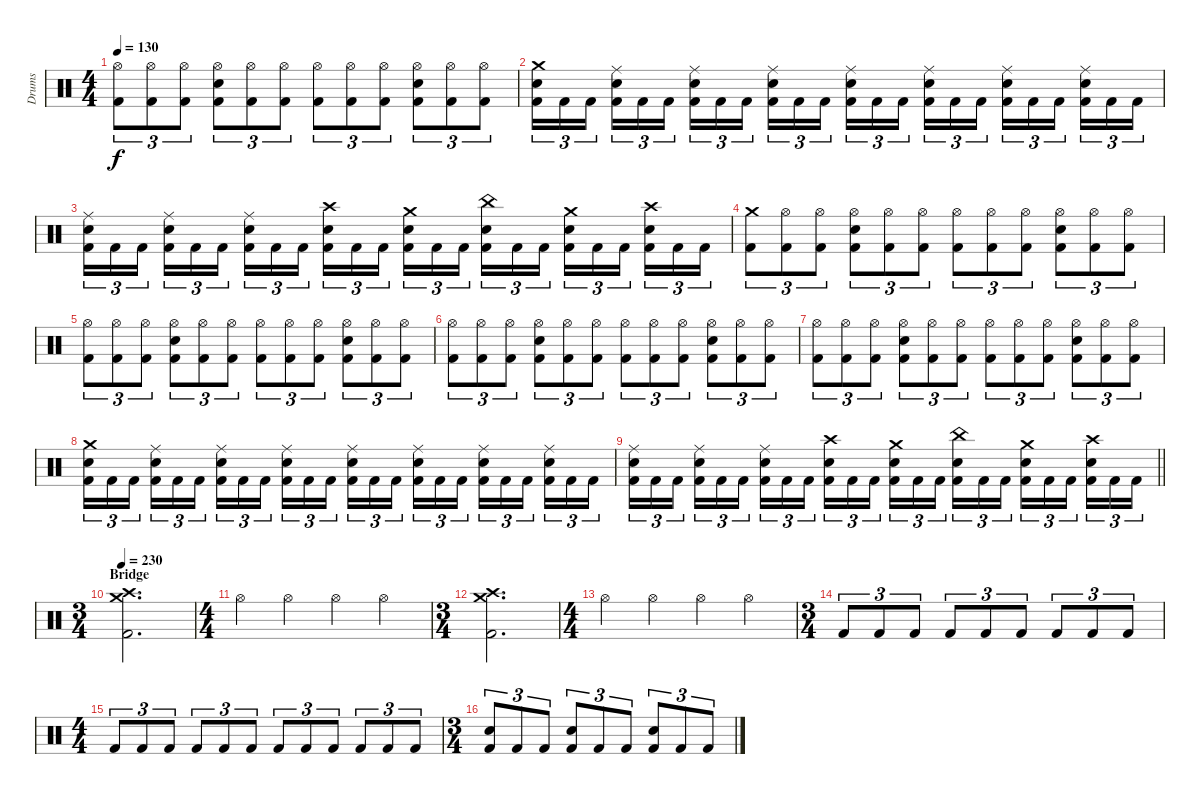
\track ("Drums" "Drums") {instrument percussion}
\staff {score}
\articulation defaults
\ts (4 4)
\tempo 130
\clef neutral
\ks c
("Kick (hit) 2" "Hi-Hat (open)").8{tu (3 2) dy f} ("Kick (hit) 2" "Hi-Hat (open)").8{tu (3 2)} ("Kick (hit) 2" "Hi-Hat (open)").8{tu (3 2)} ("Kick (hit) 2" "Snare (hit) 2" "Hi-Hat (open)").8{tu (3 2)} ("Kick (hit) 2" "Hi-Hat (open)").8{tu (3 2)} ("Kick (hit) 2" "Hi-Hat (open)").8{tu (3 2)} ("Kick (hit) 2" "Hi-Hat (open)").8{tu (3 2)} ("Kick (hit) 2" "Hi-Hat (open)").8{tu (3 2)} ("Kick (hit) 2" "Hi-Hat (open)").8{tu (3 2)} ("Kick (hit) 2" "Snare (hit) 2" "Hi-Hat (open)").8{tu (3 2)} ("Kick (hit) 2" "Hi-Hat (open)").8{tu (3 2)} ("Kick (hit) 2" "Hi-Hat (open)").8{tu (3 2)} |
("Kick (hit) 2" "Snare (hit) 2" "Crash medium (hit)").16{tu (3 2)} "Kick (hit) 2".16{tu (3 2)} "Kick (hit) 2".16{tu (3 2) beam splitsecondary} ("Kick (hit) 2" "Snare (hit) 2" "Ride (middle)").16{tu (3 2)} "Kick (hit) 2".16{tu (3 2)} "Kick (hit) 2".16{tu (3 2)} ("Kick (hit) 2" "Snare (hit) 2" "Ride (middle)").16{tu (3 2)} "Kick (hit) 2".16{tu (3 2)} "Kick (hit) 2".16{tu (3 2) beam splitsecondary} ("Kick (hit) 2" "Snare (hit) 2" "Ride (middle)").16{tu (3 2)} "Kick (hit) 2".16{tu (3 2)} "Kick (hit) 2".16{tu (3 2)} ("Kick (hit) 2" "Snare (hit) 2" "Ride (middle)").16{tu (3 2)} "Kick (hit) 2".16{tu (3 2)} "Kick (hit) 2".16{tu (3 2) beam splitsecondary} ("Kick (hit) 2" "Snare (hit) 2" "Ride (middle)").16{tu (3 2)} "Kick (hit) 2".16{tu (3 2)} "Kick (hit) 2".16{tu (3 2)} ("Kick (hit) 2" "Snare (hit) 2" "Ride (middle)").16{tu (3 2)} "Kick (hit) 2".16{tu (3 2)} "Kick (hit) 2".16{tu (3 2) beam splitsecondary} ("Kick (hit) 2" "Snare (hit) 2" "Ride (middle)").16{tu (3 2)} "Kick (hit) 2".16{tu (3 2)} "Kick (hit) 2".16{tu (3 2)} |
("Kick (hit) 2" "Snare (hit) 2" "Ride (middle)").16{tu (3 2)} "Kick (hit) 2".16{tu (3 2)} "Kick (hit) 2".16{tu (3 2) beam splitsecondary} ("Kick (hit) 2" "Snare (hit) 2" "Ride (middle)").16{tu (3 2)} "Kick (hit) 2".16{tu (3 2)} "Kick (hit) 2".16{tu (3 2)} ("Kick (hit) 2" "Snare (hit) 2" "Ride (middle)").16{tu (3 2)} "Kick (hit) 2".16{tu (3 2)} "Kick (hit) 2".16{tu (3 2) beam splitsecondary} ("Kick (hit) 2" "Snare (hit) 2" "Crash high (hit)").16{tu (3 2)} "Kick (hit) 2".16{tu (3 2)} "Kick (hit) 2".16{tu (3 2)} ("Kick (hit) 2" "Snare (hit) 2" "Crash medium (hit)").16{tu (3 2)} "Kick (hit) 2".16{tu (3 2)} "Kick (hit) 2".16{tu (3 2) beam splitsecondary} ("Kick (hit) 2" "Snare (hit) 2" "China (hit)").16{tu (3 2)} "Kick (hit) 2".16{tu (3 2)} "Kick (hit) 2".16{tu (3 2)} ("Kick (hit) 2" "Snare (hit) 2" "Crash medium (hit)").16{tu (3 2)} "Kick (hit) 2".16{tu (3 2)} "Kick (hit) 2".16{tu (3 2) beam splitsecondary} ("Kick (hit) 2" "Snare (hit) 2" "Crash high (hit)").16{tu (3 2)} "Kick (hit) 2".16{tu (3 2)} "Kick (hit) 2".16{tu (3 2)} |
("Kick (hit) 2" "Crash medium (hit)").8{tu (3 2)} ("Kick (hit) 2" "Hi-Hat (open)").8{tu (3 2)} ("Kick (hit) 2" "Hi-Hat (open)").8{tu (3 2)} ("Kick (hit) 2" "Snare (hit) 2" "Hi-Hat (open)").8{tu (3 2)} ("Kick (hit) 2" "Hi-Hat (open)").8{tu (3 2)} ("Kick (hit) 2" "Hi-Hat (open)").8{tu (3 2)} ("Kick (hit) 2" "Hi-Hat (open)").8{tu (3 2)} ("Kick (hit) 2" "Hi-Hat (open)").8{tu (3 2)} ("Kick (hit) 2" "Hi-Hat (open)").8{tu (3 2)} ("Kick (hit) 2" "Snare (hit) 2" "Hi-Hat (open)").8{tu (3 2)} ("Kick (hit) 2" "Hi-Hat (open)").8{tu (3 2)} ("Kick (hit) 2" "Hi-Hat (open)").8{tu (3 2)} |
("Kick (hit) 2" "Hi-Hat (open)").8{tu (3 2)} ("Kick (hit) 2" "Hi-Hat (open)").8{tu (3 2)} ("Kick (hit) 2" "Hi-Hat (open)").8{tu (3 2)} ("Kick (hit) 2" "Snare (hit) 2" "Hi-Hat (open)").8{tu (3 2)} ("Kick (hit) 2" "Hi-Hat (open)").8{tu (3 2)} ("Kick (hit) 2" "Hi-Hat (open)").8{tu (3 2)} ("Kick (hit) 2" "Hi-Hat (open)").8{tu (3 2)} ("Kick (hit) 2" "Hi-Hat (open)").8{tu (3 2)} ("Kick (hit) 2" "Hi-Hat (open)").8{tu (3 2)} ("Kick (hit) 2" "Snare (hit) 2" "Hi-Hat (open)").8{tu (3 2)} ("Kick (hit) 2" "Hi-Hat (open)").8{tu (3 2)} ("Kick (hit) 2" "Hi-Hat (open)").8{tu (3 2)} |
("Kick (hit) 2" "Hi-Hat (open)").8{tu (3 2)} ("Kick (hit) 2" "Hi-Hat (open)").8{tu (3 2)} ("Kick (hit) 2" "Hi-Hat (open)").8{tu (3 2)} ("Kick (hit) 2" "Snare (hit) 2" "Hi-Hat (open)").8{tu (3 2)} ("Kick (hit) 2" "Hi-Hat (open)").8{tu (3 2)} ("Kick (hit) 2" "Hi-Hat (open)").8{tu (3 2)} ("Kick (hit) 2" "Hi-Hat (open)").8{tu (3 2)} ("Kick (hit) 2" "Hi-Hat (open)").8{tu (3 2)} ("Kick (hit) 2" "Hi-Hat (open)").8{tu (3 2)} ("Kick (hit) 2" "Snare (hit) 2" "Hi-Hat (open)").8{tu (3 2)} ("Kick (hit) 2" "Hi-Hat (open)").8{tu (3 2)} ("Kick (hit) 2" "Hi-Hat (open)").8{tu (3 2)} |
("Kick (hit) 2" "Hi-Hat (open)").8{tu (3 2)} ("Kick (hit) 2" "Hi-Hat (open)").8{tu (3 2)} ("Kick (hit) 2" "Hi-Hat (open)").8{tu (3 2)} ("Kick (hit) 2" "Snare (hit) 2" "Hi-Hat (open)").8{tu (3 2)} ("Kick (hit) 2" "Hi-Hat (open)").8{tu (3 2)} ("Kick (hit) 2" "Hi-Hat (open)").8{tu (3 2)} ("Kick (hit) 2" "Hi-Hat (open)").8{tu (3 2)} ("Kick (hit) 2" "Hi-Hat (open)").8{tu (3 2)} ("Kick (hit) 2" "Hi-Hat (open)").8{tu (3 2)} ("Kick (hit) 2" "Snare (hit) 2" "Hi-Hat (open)").8{tu (3 2)} ("Kick (hit) 2" "Hi-Hat (open)").8{tu (3 2)} ("Kick (hit) 2" "Hi-Hat (open)").8{tu (3 2)} |
("Kick (hit) 2" "Snare (hit) 2" "Crash medium (hit)").16{tu (3 2)} "Kick (hit) 2".16{tu (3 2)} "Kick (hit) 2".16{tu (3 2) beam splitsecondary} ("Kick (hit) 2" "Snare (hit) 2" "Ride (middle)").16{tu (3 2)} "Kick (hit) 2".16{tu (3 2)} "Kick (hit) 2".16{tu (3 2)} ("Kick (hit) 2" "Snare (hit) 2" "Ride (middle)").16{tu (3 2)} "Kick (hit) 2".16{tu (3 2)} "Kick (hit) 2".16{tu (3 2) beam splitsecondary} ("Kick (hit) 2" "Snare (hit) 2" "Ride (middle)").16{tu (3 2)} "Kick (hit) 2".16{tu (3 2)} "Kick (hit) 2".16{tu (3 2)} ("Kick (hit) 2" "Snare (hit) 2" "Ride (middle)").16{tu (3 2)} "Kick (hit) 2".16{tu (3 2)} "Kick (hit) 2".16{tu (3 2) beam splitsecondary} ("Kick (hit) 2" "Snare (hit) 2" "Ride (middle)").16{tu (3 2)} "Kick (hit) 2".16{tu (3 2)} "Kick (hit) 2".16{tu (3 2)} ("Kick (hit) 2" "Snare (hit) 2" "Ride (middle)").16{tu (3 2)} "Kick (hit) 2".16{tu (3 2)} "Kick (hit) 2".16{tu (3 2) beam splitsecondary} ("Kick (hit) 2" "Snare (hit) 2" "Ride (middle)").16{tu (3 2)} "Kick (hit) 2".16{tu (3 2)} "Kick (hit) 2".16{tu (3 2)} |
\barLineRight lightlight
("Kick (hit) 2" "Snare (hit) 2" "Ride (middle)").16{tu (3 2)} "Kick (hit) 2".16{tu (3 2)} "Kick (hit) 2".16{tu (3 2) beam splitsecondary} ("Kick (hit) 2" "Snare (hit) 2" "Ride (middle)").16{tu (3 2)} "Kick (hit) 2".16{tu (3 2)} "Kick (hit) 2".16{tu (3 2)} ("Kick (hit) 2" "Snare (hit) 2" "Ride (middle)").16{tu (3 2)} "Kick (hit) 2".16{tu (3 2)} "Kick (hit) 2".16{tu (3 2) beam splitsecondary} ("Kick (hit) 2" "Snare (hit) 2" "Crash high (hit)").16{tu (3 2)} "Kick (hit) 2".16{tu (3 2)} "Kick (hit) 2".16{tu (3 2)} ("Kick (hit) 2" "Snare (hit) 2" "Crash medium (hit)").16{tu (3 2)} "Kick (hit) 2".16{tu (3 2)} "Kick (hit) 2".16{tu (3 2) beam splitsecondary} ("Kick (hit) 2" "Snare (hit) 2" "China (hit)").16{tu (3 2)} "Kick (hit) 2".16{tu (3 2)} "Kick (hit) 2".16{tu (3 2)} ("Kick (hit) 2" "Snare (hit) 2" "Crash medium (hit)").16{tu (3 2)} "Kick (hit) 2".16{tu (3 2)} "Kick (hit) 2".16{tu (3 2) beam splitsecondary} ("Kick (hit) 2" "Snare (hit) 2" "Crash high (hit)").16{tu (3 2)} "Kick (hit) 2".16{tu (3 2)} "Kick (hit) 2".16{tu (3 2)} |
\ts (3 4)
\section ("" "Bridge")
\tempo 230
("Kick (hit) 2" "Crash high (hit)" "Crash medium (hit)").2{d} |
\ts (4 4)
"Hi-Hat (open)".4 "Hi-Hat (open)".4 "Hi-Hat (open)".4 "Hi-Hat (open)".4 |
\ts (3 4)
("Kick (hit) 2" "Crash high (hit)" "Crash medium (hit)").2{d} |
\ts (4 4)
"Hi-Hat (open)".4 "Hi-Hat (open)".4 "Hi-Hat (open)".4 "Hi-Hat (open)".4 |
\ts (3 4)
"Kick (hit) 2".8{tu (3 2)} "Kick (hit) 2".8{tu (3 2)} "Kick (hit) 2".8{tu (3 2)} "Kick (hit) 2".8{tu (3 2)} "Kick (hit) 2".8{tu (3 2)} "Kick (hit) 2".8{tu (3 2)} "Kick (hit) 2".8{tu (3 2)} "Kick (hit) 2".8{tu (3 2)} "Kick (hit) 2".8{tu (3 2)} |
\ts (4 4)
"Kick (hit) 2".8{tu (3 2)} "Kick (hit) 2".8{tu (3 2)} "Kick (hit) 2".8{tu (3 2)} "Kick (hit) 2".8{tu (3 2)} "Kick (hit) 2".8{tu (3 2)} "Kick (hit) 2".8{tu (3 2)} "Kick (hit) 2".8{tu (3 2)} "Kick (hit) 2".8{tu (3 2)} "Kick (hit) 2".8{tu (3 2)} "Kick (hit) 2".8{tu (3 2)} "Kick (hit) 2".8{tu (3 2)} "Kick (hit) 2".8{tu (3 2)} |
\ts (3 4)
("Kick (hit) 2" "Snare (hit) 2").8{tu (3 2)} "Kick (hit) 2".8{tu (3 2)} "Kick (hit) 2".8{tu (3 2)} ("Kick (hit) 2" "Snare (hit) 2").8{tu (3 2)} "Kick (hit) 2".8{tu (3 2)} "Kick (hit) 2".8{tu (3 2)} ("Kick (hit) 2" "Snare (hit) 2").8{tu (3 2)} "Kick (hit) 2".8{tu (3 2)} "Kick (hit) 2".8{tu (3 2)}
